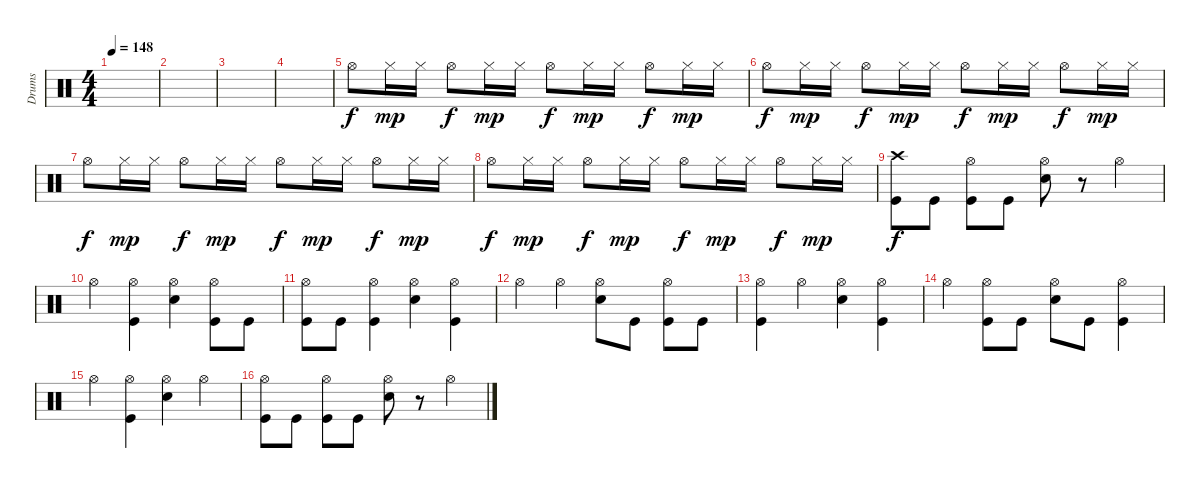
\track ("Drums" "Drums") {instrument percussion}
\staff {score}
\articulation defaults
\ts (4 4)
\tempo 148
\clef neutral
\ks c
|
|
|
|
"Hi-Hat (open)".8 "Hi-Hat (closed)".16{dy mp} "Hi-Hat (closed)".16 "Hi-Hat (open)".8{dy f} "Hi-Hat (closed)".16{dy mp} "Hi-Hat (closed)".16 "Hi-Hat (open)".8{dy f} "Hi-Hat (closed)".16{dy mp} "Hi-Hat (closed)".16 "Hi-Hat (open)".8{dy f} "Hi-Hat (closed)".16{dy mp} "Hi-Hat (closed)".16 |
"Hi-Hat (open)".8{dy f} "Hi-Hat (closed)".16{dy mp} "Hi-Hat (closed)".16 "Hi-Hat (open)".8{dy f} "Hi-Hat (closed)".16{dy mp} "Hi-Hat (closed)".16 "Hi-Hat (open)".8{dy f} "Hi-Hat (closed)".16{dy mp} "Hi-Hat (closed)".16 "Hi-Hat (open)".8{dy f} "Hi-Hat (closed)".16{dy mp} "Hi-Hat (closed)".16 |
"Hi-Hat (open)".8{dy f} "Hi-Hat (closed)".16{dy mp} "Hi-Hat (closed)".16 "Hi-Hat (open)".8{dy f} "Hi-Hat (closed)".16{dy mp} "Hi-Hat (closed)".16 "Hi-Hat (open)".8{dy f} "Hi-Hat (closed)".16{dy mp} "Hi-Hat (closed)".16 "Hi-Hat (open)".8{dy f} "Hi-Hat (closed)".16{dy mp} "Hi-Hat (closed)".16 |
"Hi-Hat (open)".8{dy f} "Hi-Hat (closed)".16{dy mp} "Hi-Hat (closed)".16 "Hi-Hat (open)".8{dy f} "Hi-Hat (closed)".16{dy mp} "Hi-Hat (closed)".16 "Hi-Hat (open)".8{dy f} "Hi-Hat (closed)".16{dy mp} "Hi-Hat (closed)".16 "Hi-Hat (open)".8{dy f} "Hi-Hat (closed)".16{dy mp} "Hi-Hat (closed)".16 |
("Crash high (hit)" "Kick (hit)").8{dy f} "Kick (hit)".8 ("Hi-Hat (open)" "Kick (hit)").8 "Kick (hit)".8 ("Hi-Hat (open)" "Snare (hit) 2").8 r.8 "Hi-Hat (open)".4 |
"Hi-Hat (open)".4 ("Hi-Hat (open)" "Kick (hit)").4 ("Hi-Hat (open)" "Snare (hit) 2").4 ("Hi-Hat (open)" "Kick (hit)").8 "Kick (hit)".8 |
("Hi-Hat (open)" "Kick (hit)").8 "Kick (hit)".8 ("Hi-Hat (open)" "Kick (hit)").4 ("Hi-Hat (open)" "Snare (hit) 2").4 ("Hi-Hat (open)" "Kick (hit)").4 |
"Hi-Hat (open)".4 "Hi-Hat (open)".4 ("Hi-Hat (open)" "Snare (hit) 2").8 "Kick (hit)".8 ("Hi-Hat (open)" "Kick (hit)").8 "Kick (hit)".8 |
("Hi-Hat (open)" "Kick (hit)").4 "Hi-Hat (open)".4 ("Hi-Hat (open)" "Snare (hit) 2").4 ("Hi-Hat (open)" "Kick (hit)").4 |
"Hi-Hat (open)".4 ("Hi-Hat (open)" "Kick (hit)").8 "Kick (hit)".8 ("Hi-Hat (open)" "Snare (hit) 2").8 "Kick (hit)".8 ("Hi-Hat (open)" "Kick (hit)").4 |
"Hi-Hat (open)".4 ("Hi-Hat (open)" "Kick (hit)").4 ("Hi-Hat (open)" "Snare (hit) 2").4 "Hi-Hat (open)".4 |
("Hi-Hat (open)" "Kick (hit)").8 "Kick (hit)".8 ("Hi-Hat (open)" "Kick (hit)").8 "Kick (hit)".8 ("Hi-Hat (open)" "Snare (hit) 2").8 r.8 "Hi-Hat (open)".4
